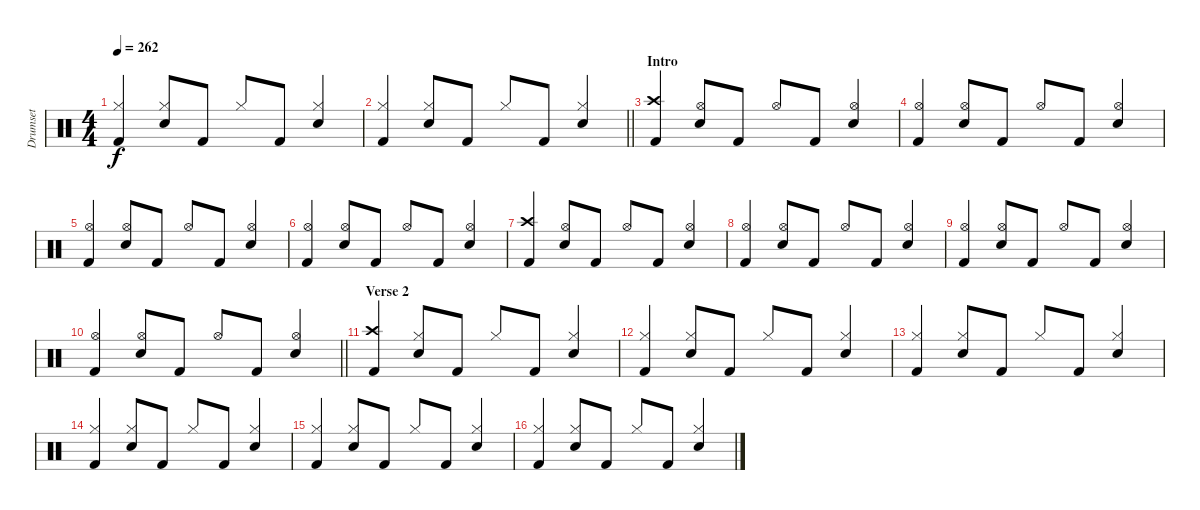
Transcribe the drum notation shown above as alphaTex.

\track ("Drumset" "Drumset") {instrument percussion}
\staff {score}
\articulation defaults
\ts (4 4)
\tempo 262
\clef neutral
\ks c
("Hi-Hat (closed)" "Kick (hit) 2").4{dy f beam Up} ("Hi-Hat (closed)" "Snare (hit) 2").8{beam Up} "Kick (hit) 2".8{beam Up} "Hi-Hat (closed)".8{beam Up} "Kick (hit) 2".8{beam Up} ("Snare (hit) 2" "Hi-Hat (closed)").4{beam Up} |
\barLineRight lightlight
("Hi-Hat (closed)" "Kick (hit) 2").4{beam Up} ("Hi-Hat (closed)" "Snare (hit) 2").8{beam Up} "Kick (hit) 2".8{beam Up} "Hi-Hat (closed)".8{beam Up} "Kick (hit) 2".8{beam Up} ("Snare (hit) 2" "Hi-Hat (closed)").4{beam Up} |
\section ("" "Intro")
("Crash high (hit)" "Kick (hit) 2").4{beam Up} ("Snare (hit) 2" "Hi-Hat (open)").8{beam Up} "Kick (hit) 2".8{beam Up} "Hi-Hat (open)".8{beam Up} "Kick (hit) 2".8{beam Up} ("Hi-Hat (open)" "Snare (hit) 2").4{beam Up} |
("Hi-Hat (open)" "Kick (hit) 2").4{beam Up} ("Snare (hit) 2" "Hi-Hat (open)").8{beam Up} "Kick (hit) 2".8{beam Up} "Hi-Hat (open)".8{beam Up} "Kick (hit) 2".8{beam Up} ("Hi-Hat (open)" "Snare (hit) 2").4{beam Up} |
("Kick (hit) 2" "Hi-Hat (open)").4{beam Up} ("Snare (hit) 2" "Hi-Hat (open)").8{beam Up} "Kick (hit) 2".8{beam Up} "Hi-Hat (open)".8{beam Up} "Kick (hit) 2".8{beam Up} ("Hi-Hat (open)" "Snare (hit) 2").4{beam Up} |
("Hi-Hat (open)" "Kick (hit) 2").4{beam Up} ("Snare (hit) 2" "Hi-Hat (open)").8{beam Up} "Kick (hit) 2".8{beam Up} "Hi-Hat (open)".8{beam Up} "Kick (hit) 2".8{beam Up} ("Hi-Hat (open)" "Snare (hit) 2").4{beam Up} |
("Crash high (hit)" "Kick (hit) 2").4{beam Up} ("Snare (hit) 2" "Hi-Hat (open)").8{beam Up} "Kick (hit) 2".8{beam Up} "Hi-Hat (open)".8{beam Up} "Kick (hit) 2".8{beam Up} ("Hi-Hat (open)" "Snare (hit) 2").4{beam Up} |
("Hi-Hat (open)" "Kick (hit) 2").4{beam Up} ("Snare (hit) 2" "Hi-Hat (open)").8{beam Up} "Kick (hit) 2".8{beam Up} "Hi-Hat (open)".8{beam Up} "Kick (hit) 2".8{beam Up} ("Hi-Hat (open)" "Snare (hit) 2").4{beam Up} |
("Hi-Hat (open)" "Kick (hit) 2").4{beam Up} ("Snare (hit) 2" "Hi-Hat (open)").8{beam Up} "Kick (hit) 2".8{beam Up} "Hi-Hat (open)".8{beam Up} "Kick (hit) 2".8{beam Up} ("Hi-Hat (open)" "Snare (hit) 2").4{beam Up} |
\barLineRight lightlight
("Kick (hit) 2" "Hi-Hat (open)").4{beam Up} ("Snare (hit) 2" "Hi-Hat (open)").8{beam Up} "Kick (hit) 2".8{beam Up} "Hi-Hat (open)".8{beam Up} "Kick (hit) 2".8{beam Up} ("Hi-Hat (open)" "Snare (hit) 2").4{beam Up} |
\section ("" "Verse 2")
("Crash high (hit)" "Kick (hit) 2").4{beam Up} ("Snare (hit) 2" "Hi-Hat (closed)").8{beam Up} "Kick (hit) 2".8{beam Up} "Hi-Hat (closed)".8{beam Up} "Kick (hit) 2".8{beam Up} ("Snare (hit) 2" "Hi-Hat (closed)").4{beam Up} |
("Hi-Hat (closed)" "Kick (hit) 2").4{beam Up} ("Hi-Hat (closed)" "Snare (hit) 2").8{beam Up} "Kick (hit) 2".8{beam Up} "Hi-Hat (closed)".8{beam Up} "Kick (hit) 2".8{beam Up} ("Snare (hit) 2" "Hi-Hat (closed)").4{beam Up} |
("Hi-Hat (closed)" "Kick (hit) 2").4{beam Up} ("Hi-Hat (closed)" "Snare (hit) 2").8{beam Up} "Kick (hit) 2".8{beam Up} "Hi-Hat (closed)".8{beam Up} "Kick (hit) 2".8{beam Up} ("Snare (hit) 2" "Hi-Hat (closed)").4{beam Up} |
("Hi-Hat (closed)" "Kick (hit) 2").4{beam Up} ("Hi-Hat (closed)" "Snare (hit) 2").8{beam Up} "Kick (hit) 2".8{beam Up} "Hi-Hat (closed)".8{beam Up} "Kick (hit) 2".8{beam Up} ("Snare (hit) 2" "Hi-Hat (closed)").4{beam Up} |
("Hi-Hat (closed)" "Kick (hit) 2").4{beam Up} ("Hi-Hat (closed)" "Snare (hit) 2").8{beam Up} "Kick (hit) 2".8{beam Up} "Hi-Hat (closed)".8{beam Up} "Kick (hit) 2".8{beam Up} ("Snare (hit) 2" "Hi-Hat (closed)").4{beam Up} |
("Hi-Hat (closed)" "Kick (hit) 2").4{beam Up} ("Hi-Hat (closed)" "Snare (hit) 2").8{beam Up} "Kick (hit) 2".8{beam Up} "Hi-Hat (closed)".8{beam Up} "Kick (hit) 2".8{beam Up} ("Snare (hit) 2" "Hi-Hat (closed)").4{beam Up}
